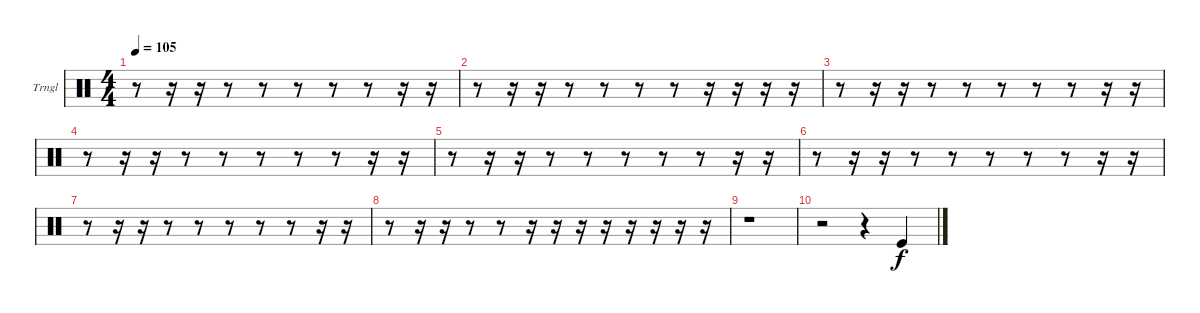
\bracketExtendMode groupsimilarinstruments
\firstSystemTrackNameOrientation horizontal
\otherSystemsTrackNameOrientation horizontal
\track ("Triangle" "Trngl") {instrument percussion}
\staff {score}
\articulation defaults
\ts (4 4)
\tempo 105
\clef neutral
\ks c
r.8{dy f} r.16 r.16 r.8 r.8 r.8 r.8 r.8 r.16 r.16 |
r.8 r.16 r.16 r.8 r.8 r.8 r.8 r.16 r.16 r.16 r.16 |
r.8 r.16 r.16 r.8 r.8 r.8 r.8 r.8 r.16 r.16 |
r.8 r.16 r.16 r.8 r.8 r.8 r.8 r.8 r.16 r.16 |
r.8 r.16 r.16 r.8 r.8 r.8 r.8 r.8 r.16 r.16 |
r.8 r.16 r.16 r.8 r.8 r.8 r.8 r.8 r.16 r.16 |
r.8 r.16 r.16 r.8 r.8 r.8 r.8 r.8 r.16 r.16 |
r.8 r.16 r.16 r.8 r.8 r.16 r.16 r.16 r.16 r.16 r.16 r.16 r.16 |
r.1 |
r.2 r.4 "Kick (hit)".4
